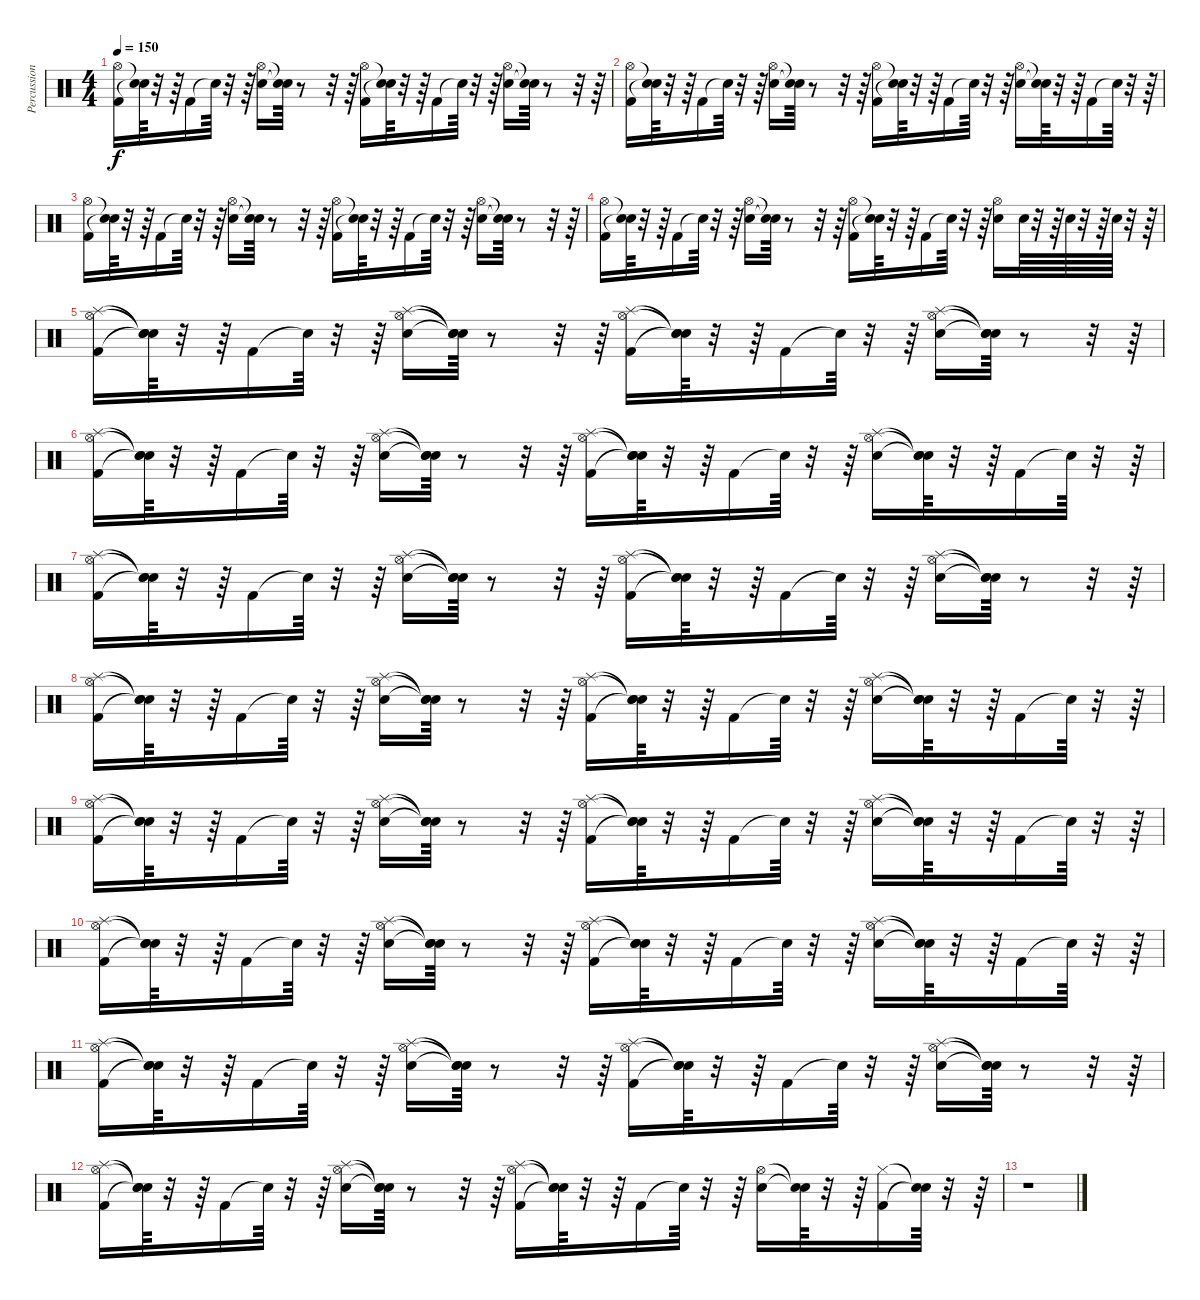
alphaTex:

\track ("Percussions" "Percussion") {instrument percussion}
\staff {score}
\articulation defaults
\ts (4 4)
\tempo 150
\clef neutral
\ks c
("Hi-Hat (open)" "Kick (hit) 2").16{dy f} ("Snare (hit)"{t} "Snare (hit)"{t}).64 r.32 r.64 "Kick (hit) 2".16 "Snare (hit)"{t}.64 r.32 r.64 ("Hi-Hat (open)" "Electric Snare (hit)").16 ("Snare (hit)"{t} "Snare (hit)"{t}).64 r.8 r.32 r.64 ("Hi-Hat (open)" "Kick (hit) 2").16 ("Snare (hit)"{t} "Snare (hit)"{t}).64 r.32 r.64 "Kick (hit) 2".16 "Snare (hit)"{t}.64 r.32 r.64 ("Hi-Hat (open)" "Electric Snare (hit)").16 ("Snare (hit)"{t} "Snare (hit)"{t}).64 r.8 r.32 r.64 |
("Hi-Hat (open)" "Kick (hit) 2").16 ("Snare (hit)"{t} "Snare (hit)"{t}).64 r.32 r.64 "Kick (hit) 2".16 "Snare (hit)"{t}.64 r.32 r.64 ("Hi-Hat (open)" "Electric Snare (hit)").16 ("Snare (hit)"{t} "Snare (hit)"{t}).64 r.8 r.32 r.64 ("Hi-Hat (open)" "Kick (hit) 2").16 ("Snare (hit)"{t} "Snare (hit)"{t}).64 r.32 r.64 "Kick (hit) 2".16 "Snare (hit)"{t}.64 r.32 r.64 ("Hi-Hat (open)" "Electric Snare (hit)").16 ("Snare (hit)"{t} "Snare (hit)"{t}).64 r.32 r.64 "Kick (hit) 2".16 "Snare (hit)"{t}.64 r.32 r.64 |
("Hi-Hat (open)" "Kick (hit) 2").16 ("Snare (hit)"{t} "Snare (hit)"{t}).64 r.32 r.64 "Kick (hit) 2".16 "Snare (hit)"{t}.64 r.32 r.64 ("Hi-Hat (open)" "Electric Snare (hit)").16 ("Snare (hit)"{t} "Snare (hit)"{t}).64 r.8 r.32 r.64 ("Hi-Hat (open)" "Kick (hit) 2").16 ("Snare (hit)"{t} "Snare (hit)"{t}).64 r.32 r.64 "Kick (hit) 2".16 "Snare (hit)"{t}.64 r.32 r.64 ("Hi-Hat (open)" "Electric Snare (hit)").16 ("Snare (hit)"{t} "Snare (hit)"{t}).64 r.8 r.32 r.64 |
("Hi-Hat (open)" "Kick (hit) 2").16 ("Snare (hit)"{t} "Snare (hit)"{t}).64 r.32 r.64 "Kick (hit) 2".16 "Snare (hit)"{t}.64 r.32 r.64 ("Hi-Hat (open)" "Electric Snare (hit)").16 ("Snare (hit)"{t} "Snare (hit)"{t}).64 r.8 r.32 r.64 ("Hi-Hat (open)" "Kick (hit) 2").16 ("Snare (hit)"{t} "Snare (hit)"{t}).64 r.32 r.64 "Kick (hit) 2".16 "Snare (hit)"{t}.64 r.32 r.64 ("Hi-Hat (open)" "Electric Snare (hit)").16 "Electric Snare (hit)".64 r.32 r.64 "Electric Snare (hit)".64 r.32 r.64 "Electric Snare (hit)".64 r.32 r.64 |
("Kick (hit) 2" "Splash (hit)" "Hi-Hat (open)").16 ("Snare (hit)"{t} "Snare (hit)"{t} "Snare (hit)"{t}).64 r.32 r.64 "Kick (hit) 2".16 "Snare (hit)"{t}.64 r.32 r.64 ("Electric Snare (hit)" "Splash (hit)" "Hi-Hat (open)").16 ("Snare (hit)"{t} "Snare (hit)"{t} "Snare (hit)"{t}).64 r.8 r.32 r.64 ("Kick (hit) 2" "Splash (hit)" "Hi-Hat (open)").16 ("Snare (hit)"{t} "Snare (hit)"{t} "Snare (hit)"{t}).64 r.32 r.64 "Kick (hit) 2".16 "Snare (hit)"{t}.64 r.32 r.64 ("Electric Snare (hit)" "Splash (hit)" "Hi-Hat (open)").16 ("Snare (hit)"{t} "Snare (hit)"{t} "Snare (hit)"{t}).64 r.8 r.32 r.64 |
("Hi-Hat (open)" "Kick (hit) 2" "Splash (hit)").16 ("Snare (hit)"{t} "Snare (hit)"{t} "Snare (hit)"{t}).64 r.32 r.64 "Kick (hit) 2".16 "Snare (hit)"{t}.64 r.32 r.64 ("Hi-Hat (open)" "Electric Snare (hit)" "Splash (hit)").16 ("Snare (hit)"{t} "Snare (hit)"{t} "Snare (hit)"{t}).64 r.8 r.32 r.64 ("Hi-Hat (open)" "Kick (hit) 2" "Splash (hit)").16 ("Snare (hit)"{t} "Snare (hit)"{t} "Snare (hit)"{t}).64 r.32 r.64 "Kick (hit) 2".16 "Snare (hit)"{t}.64 r.32 r.64 ("Hi-Hat (open)" "Electric Snare (hit)" "Splash (hit)").16 ("Snare (hit)"{t} "Snare (hit)"{t} "Snare (hit)"{t}).64 r.32 r.64 "Kick (hit) 2".16 "Snare (hit)"{t}.64 r.32 r.64 |
("Kick (hit) 2" "Splash (hit)" "Hi-Hat (open)").16 ("Snare (hit)"{t} "Snare (hit)"{t} "Snare (hit)"{t}).64 r.32 r.64 "Kick (hit) 2".16 "Snare (hit)"{t}.64 r.32 r.64 ("Electric Snare (hit)" "Splash (hit)" "Hi-Hat (open)").16 ("Snare (hit)"{t} "Snare (hit)"{t} "Snare (hit)"{t}).64 r.8 r.32 r.64 ("Kick (hit) 2" "Splash (hit)" "Hi-Hat (open)").16 ("Snare (hit)"{t} "Snare (hit)"{t} "Snare (hit)"{t}).64 r.32 r.64 "Kick (hit) 2".16 "Snare (hit)"{t}.64 r.32 r.64 ("Electric Snare (hit)" "Splash (hit)" "Hi-Hat (open)").16 ("Snare (hit)"{t} "Snare (hit)"{t} "Snare (hit)"{t}).64 r.8 r.32 r.64 |
("Hi-Hat (open)" "Kick (hit) 2" "Splash (hit)").16 ("Snare (hit)"{t} "Snare (hit)"{t} "Snare (hit)"{t}).64 r.32 r.64 "Kick (hit) 2".16 "Snare (hit)"{t}.64 r.32 r.64 ("Hi-Hat (open)" "Electric Snare (hit)" "Splash (hit)").16 ("Snare (hit)"{t} "Snare (hit)"{t} "Snare (hit)"{t}).64 r.8 r.32 r.64 ("Hi-Hat (open)" "Kick (hit) 2" "Splash (hit)").16 ("Snare (hit)"{t} "Snare (hit)"{t} "Snare (hit)"{t}).64 r.32 r.64 "Kick (hit) 2".16 "Snare (hit)"{t}.64 r.32 r.64 ("Hi-Hat (open)" "Electric Snare (hit)" "Splash (hit)").16 ("Snare (hit)"{t} "Snare (hit)"{t} "Snare (hit)"{t}).64 r.32 r.64 "Kick (hit) 2".16 "Snare (hit)"{t}.64 r.32 r.64 |
("Hi-Hat (open)" "Kick (hit) 2" "Splash (hit)").16 ("Snare (hit)"{t} "Snare (hit)"{t} "Snare (hit)"{t}).64 r.32 r.64 "Kick (hit) 2".16 "Snare (hit)"{t}.64 r.32 r.64 ("Hi-Hat (open)" "Electric Snare (hit)" "Splash (hit)").16 ("Snare (hit)"{t} "Snare (hit)"{t} "Snare (hit)"{t}).64 r.8 r.32 r.64 ("Hi-Hat (open)" "Kick (hit) 2" "Splash (hit)").16 ("Snare (hit)"{t} "Snare (hit)"{t} "Snare (hit)"{t}).64 r.32 r.64 "Kick (hit) 2".16 "Snare (hit)"{t}.64 r.32 r.64 ("Hi-Hat (open)" "Electric Snare (hit)" "Splash (hit)").16 ("Snare (hit)"{t} "Snare (hit)"{t} "Snare (hit)"{t}).64 r.32 r.64 "Kick (hit) 2".16 "Snare (hit)"{t}.64 r.32 r.64 |
("Hi-Hat (open)" "Kick (hit) 2" "Splash (hit)").16 ("Snare (hit)"{t} "Snare (hit)"{t} "Snare (hit)"{t}).64 r.32 r.64 "Kick (hit) 2".16 "Snare (hit)"{t}.64 r.32 r.64 ("Hi-Hat (open)" "Electric Snare (hit)" "Splash (hit)").16 ("Snare (hit)"{t} "Snare (hit)"{t} "Snare (hit)"{t}).64 r.8 r.32 r.64 ("Hi-Hat (open)" "Kick (hit) 2" "Splash (hit)").16 ("Snare (hit)"{t} "Snare (hit)"{t} "Snare (hit)"{t}).64 r.32 r.64 "Kick (hit) 2".16 "Snare (hit)"{t}.64 r.32 r.64 ("Hi-Hat (open)" "Electric Snare (hit)" "Splash (hit)").16 ("Snare (hit)"{t} "Snare (hit)"{t} "Snare (hit)"{t}).64 r.32 r.64 "Kick (hit) 2".16 "Snare (hit)"{t}.64 r.32 r.64 |
("Kick (hit) 2" "Splash (hit)" "Hi-Hat (open)").16 ("Snare (hit)"{t} "Snare (hit)"{t} "Snare (hit)"{t}).64 r.32 r.64 "Kick (hit) 2".16 "Snare (hit)"{t}.64 r.32 r.64 ("Electric Snare (hit)" "Splash (hit)" "Hi-Hat (open)").16 ("Snare (hit)"{t} "Snare (hit)"{t} "Snare (hit)"{t}).64 r.8 r.32 r.64 ("Kick (hit) 2" "Splash (hit)" "Hi-Hat (open)").16 ("Snare (hit)"{t} "Snare (hit)"{t} "Snare (hit)"{t}).64 r.32 r.64 "Kick (hit) 2".16 "Snare (hit)"{t}.64 r.32 r.64 ("Electric Snare (hit)" "Splash (hit)" "Hi-Hat (open)").16 ("Snare (hit)"{t} "Snare (hit)"{t} "Snare (hit)"{t}).64 r.8 r.32 r.64 |
("Hi-Hat (open)" "Kick (hit) 2" "Splash (hit)").16 ("Snare (hit)"{t} "Snare (hit)"{t} "Snare (hit)"{t}).64 r.32 r.64 "Kick (hit) 2".16 "Snare (hit)"{t}.64 r.32 r.64 ("Hi-Hat (open)" "Electric Snare (hit)" "Splash (hit)").16 ("Snare (hit)"{t} "Snare (hit)"{t} "Snare (hit)"{t}).64 r.8 r.32 r.64 ("Hi-Hat (open)" "Kick (hit) 2" "Splash (hit)").16 ("Snare (hit)"{t} "Snare (hit)"{t} "Snare (hit)"{t}).64 r.32 r.64 "Kick (hit) 2".16 "Snare (hit)"{t}.64 r.32 r.64 ("Hi-Hat (open)" "Electric Snare (hit)").16 ("Snare (hit)"{t} "Snare (hit)"{t}).64 r.32 r.64 ("Kick (hit) 2" "Hi-Hat (closed)").16 ("Snare (hit)"{t} "Snare (hit)"{t}).64 r.32 r.64 |
r.1
